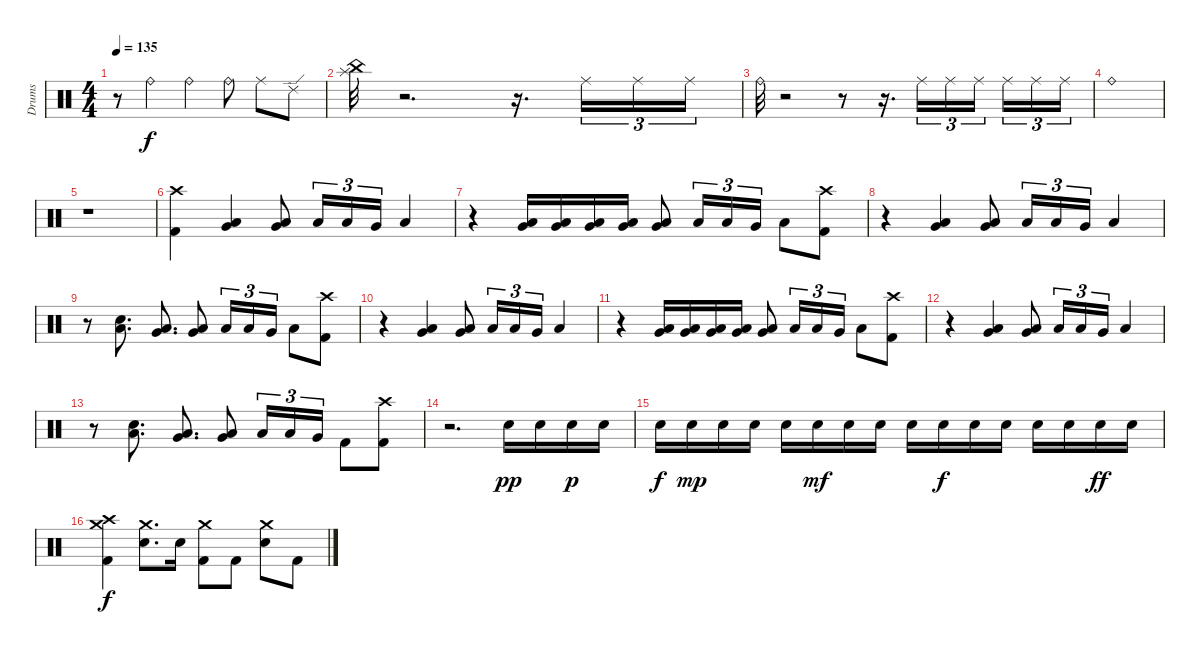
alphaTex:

\track ("Drums" "Drums") {instrument percussion}
\staff {score}
\articulation defaults
\ts (4 4)
\tempo 135
\clef neutral
\ks c
r.8{dy f} "Ride (bell)".4 "Ride (bell)".4 "Ride (bell)".8 "Ride (middle)".8 "Ride (edge) 2".8 |
("China (hit)" "Splash (hit)").32 r.2{d} r.16{d} "Ride (middle)".16{tu (3 2)} "Ride (middle)".16{tu (3 2)} "Ride (middle)".16{tu (3 2)} |
"Ride (bell)".32 r.2 r.8 r.16{d} "Ride (middle)".16{tu (3 2)} "Ride (middle)".16{tu (3 2)} "Ride (middle)".16{tu (3 2)} "Ride (middle)".16{tu (3 2)} "Ride (middle)".16{tu (3 2)} "Ride (middle)".16{tu (3 2)} |
"Ride (bell)".1 |
r.1 |
("Crash high (hit)" "Kick (hit) 2").4 ("Very Low Tom (hit)" "Low Floor Tom (hit)").4 ("Very Low Tom (hit)" "Low Floor Tom (hit)").8 "Low Floor Tom (hit)".16{tu (3 2)} "Low Tom (hit)".16{tu (3 2)} "Very Low Tom (hit)".16{tu (3 2)} "Low Floor Tom (hit)".4 |
r.4 ("Low Tom (hit)" "Very Low Tom (hit)").16 ("Low Tom (hit)" "Very Low Tom (hit)").16 ("Very Low Tom (hit)" "Low Floor Tom (hit)").16 ("Very Low Tom (hit)" "Low Floor Tom (hit)").16 ("Low Tom (hit)" "Very Low Tom (hit)").8 "Low Floor Tom (hit)".16{tu (3 2)} "Low Tom (hit)".16{tu (3 2)} "Very Low Tom (hit)".16{tu (3 2)} "Low Floor Tom (hit)".8 ("Crash high (hit)" "Kick (hit) 2").8 |
r.4 ("Very Low Tom (hit)" "Low Floor Tom (hit)").4 ("Very Low Tom (hit)" "Low Floor Tom (hit)").8 "Low Floor Tom (hit)".16{tu (3 2)} "Low Tom (hit)".16{tu (3 2)} "Very Low Tom (hit)".16{tu (3 2)} "Low Floor Tom (hit)".4 |
r.8 ("Low Floor Tom (hit)" "Electric Snare (hit)").8{d} ("Very Low Tom (hit)" "Low Floor Tom (hit)").8{d} ("Very Low Tom (hit)" "Low Floor Tom (hit)").8 "Low Floor Tom (hit)".16{tu (3 2)} "Low Tom (hit)".16{tu (3 2)} "Very Low Tom (hit)".16{tu (3 2)} "Low Floor Tom (hit)".8 ("Crash high (hit)" "Kick (hit) 2").8 |
r.4 ("Very Low Tom (hit)" "Low Floor Tom (hit)").4 ("Very Low Tom (hit)" "Low Floor Tom (hit)").8 "Low Floor Tom (hit)".16{tu (3 2)} "Low Tom (hit)".16{tu (3 2)} "Very Low Tom (hit)".16{tu (3 2)} "Low Floor Tom (hit)".4 |
r.4 ("Low Tom (hit)" "Very Low Tom (hit)").16 ("Low Tom (hit)" "Very Low Tom (hit)").16 ("Very Low Tom (hit)" "Low Floor Tom (hit)").16 ("Very Low Tom (hit)" "Low Floor Tom (hit)").16 ("Low Tom (hit)" "Very Low Tom (hit)").8 "Low Floor Tom (hit)".16{tu (3 2)} "Low Tom (hit)".16{tu (3 2)} "Very Low Tom (hit)".16{tu (3 2)} "Low Floor Tom (hit)".8 ("Crash high (hit)" "Kick (hit) 2").8 |
r.4 ("Very Low Tom (hit)" "Low Floor Tom (hit)").4 ("Very Low Tom (hit)" "Low Floor Tom (hit)").8 "Low Floor Tom (hit)".16{tu (3 2)} "Low Tom (hit)".16{tu (3 2)} "Very Low Tom (hit)".16{tu (3 2)} "Low Floor Tom (hit)".4 |
r.8 ("Low Floor Tom (hit)" "Electric Snare (hit)").8{d} ("Very Low Tom (hit)" "Low Floor Tom (hit)").8{d} ("Very Low Tom (hit)" "Low Floor Tom (hit)").8 "Low Floor Tom (hit)".16{tu (3 2)} "Low Tom (hit)".16{tu (3 2)} "Very Low Tom (hit)".16{tu (3 2)} "Kick (hit) 2".8 ("Crash high (hit)" "Kick (hit) 2").8 |
r.2{d} "Electric Snare (hit)".16{dy pp} "Electric Snare (hit)".16 "Electric Snare (hit)".16{dy p} "Electric Snare (hit)".16 |
"Electric Snare (hit)".16{dy f} "Electric Snare (hit)".16{dy mp} "Electric Snare (hit)".16 "Electric Snare (hit)".16 "Electric Snare (hit)".16 "Electric Snare (hit)".16{dy mf} "Electric Snare (hit)".16 "Electric Snare (hit)".16 "Electric Snare (hit)".16 "Electric Snare (hit)".16{dy f} "Electric Snare (hit)".16 "Electric Snare (hit)".16 "Electric Snare (hit)".16 "Electric Snare (hit)".16 "Electric Snare (hit)".16{dy ff} "Electric Snare (hit)".16 |
("Crash medium (hit)" "Crash high (hit)" "Kick (hit) 2").4{dy f} ("Crash medium (hit)" "Electric Snare (hit)").8{d} "Electric Snare (hit)".16 ("Crash medium (hit)" "Kick (hit) 2").8 "Kick (hit) 2".8 ("Crash medium (hit)" "Electric Snare (hit)").8 "Kick (hit) 2".8
